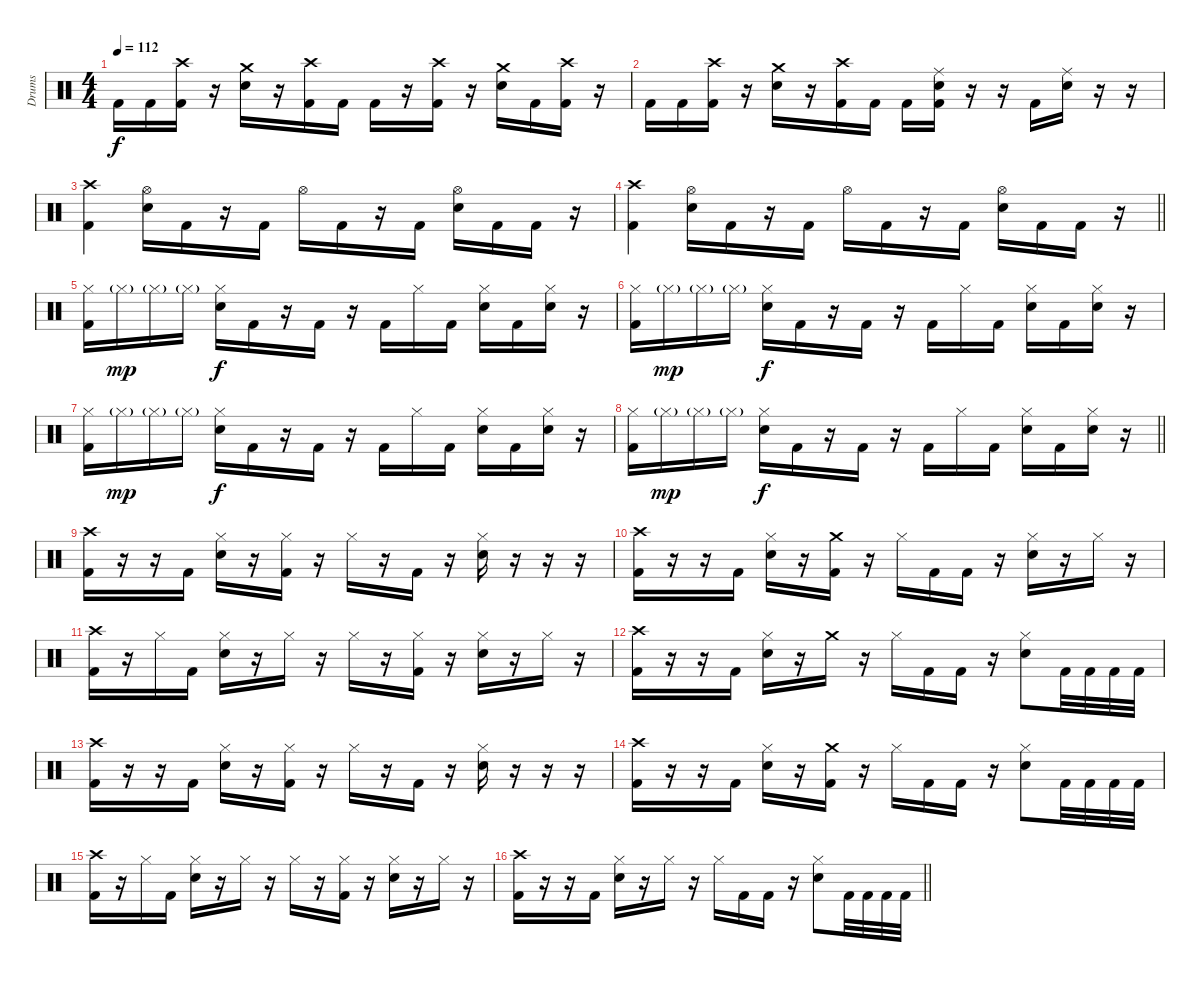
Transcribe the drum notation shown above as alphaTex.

\track ("Drums" "Drums") {instrument percussion}
\staff {score}
\articulation defaults
\ts (4 4)
\tempo 112
\clef neutral
\ks c "Kick (hit) 2".16{dy f} "Kick (hit) 2".16
("Crash high (hit)" "Kick (hit) 2").16 r.16 ("Crash medium (hit)" "Electric Snare (hit)").16 r.16 ("Crash high (hit)" "Kick (hit) 2").16 "Kick (hit) 2".16 "Kick (hit) 2".16 r.16 ("Crash high (hit)" "Kick (hit) 2").16 r.16 ("Crash medium (hit)" "Electric Snare (hit)").16 "Kick (hit) 2".16 ("Crash high (hit)" "Kick (hit) 2").16 r.16 |
"Kick (hit) 2".16 "Kick (hit) 2".16 ("Crash high (hit)" "Kick (hit) 2").16 r.16 ("Crash medium (hit)" "Electric Snare (hit)").16 r.16 ("Crash high (hit)" "Kick (hit) 2").16 "Kick (hit) 2".16 "Kick (hit) 2".16 ("Ride (middle)" "Electric Snare (hit)" "Kick (hit) 2").16 r.16 r.16 "Kick (hit) 2".16 ("Ride (middle)" "Electric Snare (hit)").16 r.16 r.16 |
("Crash high (hit)" "Kick (hit) 2").4 ("Hi-Hat (open)" "Electric Snare (hit)").16 "Kick (hit) 2".16 r.16 "Kick (hit) 2".16 "Hi-Hat (open)".16 "Kick (hit) 2".16 r.16 "Kick (hit) 2".16 ("Hi-Hat (open)" "Electric Snare (hit)").16 "Kick (hit) 2".16 "Kick (hit) 2".16 r.16 |
\barLineRight lightlight
("Crash high (hit)" "Kick (hit) 2").4 ("Hi-Hat (open)" "Electric Snare (hit)").16 "Kick (hit) 2".16 r.16 "Kick (hit) 2".16 "Hi-Hat (open)".16 "Kick (hit) 2".16 r.16 "Kick (hit) 2".16 ("Hi-Hat (open)" "Electric Snare (hit)").16 "Kick (hit) 2".16 "Kick (hit) 2".16 r.16 |
("Hi-Hat (closed)" "Kick (hit) 2").16 "Hi-Hat (closed)"{g}.16{dy mp} "Hi-Hat (closed)"{g}.16 "Hi-Hat (closed)"{g}.16 ("Hi-Hat (closed)" "Electric Snare (hit)").16{dy f} "Kick (hit) 2".16 r.16 "Kick (hit) 2".16 r.16 "Kick (hit) 2".16 "Hi-Hat (closed)".16 "Kick (hit) 2".16 ("Hi-Hat (closed)" "Electric Snare (hit)").16 "Kick (hit) 2".16 ("Hi-Hat (closed)" "Electric Snare (hit)").16 r.16 |
("Hi-Hat (closed)" "Kick (hit) 2").16 "Hi-Hat (closed)"{g}.16{dy mp} "Hi-Hat (closed)"{g}.16 "Hi-Hat (closed)"{g}.16 ("Hi-Hat (closed)" "Electric Snare (hit)").16{dy f} "Kick (hit) 2".16 r.16 "Kick (hit) 2".16 r.16 "Kick (hit) 2".16 "Hi-Hat (closed)".16 "Kick (hit) 2".16 ("Hi-Hat (closed)" "Electric Snare (hit)").16 "Kick (hit) 2".16 ("Hi-Hat (closed)" "Electric Snare (hit)").16 r.16 |
("Hi-Hat (closed)" "Kick (hit) 2").16 "Hi-Hat (closed)"{g}.16{dy mp} "Hi-Hat (closed)"{g}.16 "Hi-Hat (closed)"{g}.16 ("Hi-Hat (closed)" "Electric Snare (hit)").16{dy f} "Kick (hit) 2".16 r.16 "Kick (hit) 2".16 r.16 "Kick (hit) 2".16 "Hi-Hat (closed)".16 "Kick (hit) 2".16 ("Hi-Hat (closed)" "Electric Snare (hit)").16 "Kick (hit) 2".16 ("Hi-Hat (closed)" "Electric Snare (hit)").16 r.16 |
\barLineRight lightlight
("Hi-Hat (closed)" "Kick (hit) 2").16 "Hi-Hat (closed)"{g}.16{dy mp} "Hi-Hat (closed)"{g}.16 "Hi-Hat (closed)"{g}.16 ("Hi-Hat (closed)" "Electric Snare (hit)").16{dy f} "Kick (hit) 2".16 r.16 "Kick (hit) 2".16 r.16 "Kick (hit) 2".16 "Hi-Hat (closed)".16 "Kick (hit) 2".16 ("Hi-Hat (closed)" "Electric Snare (hit)").16 "Kick (hit) 2".16 ("Hi-Hat (closed)" "Electric Snare (hit)").16 r.16 |
("Crash high (hit)" "Kick (hit) 2").16 r.16 r.16 "Kick (hit) 2".16 ("Hi-Hat (closed)" "Electric Snare (hit)").16 r.16 ("Hi-Hat (closed)" "Kick (hit) 2").16 r.16 "Hi-Hat (closed)".16 r.16 "Kick (hit) 2".16 r.16 ("Hi-Hat (closed)" "Electric Snare (hit)").16 r.16 r.16 r.16 |
("Crash high (hit)" "Kick (hit) 2").16 r.16 r.16 "Kick (hit) 2".16 ("Hi-Hat (closed)" "Electric Snare (hit)").16 r.16 ("Crash medium (hit)" "Kick (hit) 2").16 r.16 "Hi-Hat (closed)".16 "Kick (hit) 2".16 "Kick (hit) 2".16 r.16 ("Hi-Hat (closed)" "Electric Snare (hit)").16 r.16 "Hi-Hat (closed)".16 r.16 |
("Crash high (hit)" "Kick (hit) 2").16 r.16 "Hi-Hat (closed)".16 "Kick (hit) 2".16 ("Hi-Hat (closed)" "Electric Snare (hit)").16 r.16 "Hi-Hat (closed)".16 r.16 "Hi-Hat (closed)".16 r.16 ("Hi-Hat (closed)" "Kick (hit) 2").16 r.16 ("Hi-Hat (closed)" "Electric Snare (hit)").16 r.16 "Hi-Hat (closed)".16 r.16 |
("Crash high (hit)" "Kick (hit) 2").16 r.16 r.16 "Kick (hit) 2".16 ("Hi-Hat (closed)" "Electric Snare (hit)").16 r.16 "Crash medium (hit)".16 r.16 "Hi-Hat (closed)".16 "Kick (hit) 2".16 "Kick (hit) 2".16 r.16 ("Hi-Hat (closed)" "Electric Snare (hit)").8 "Kick (hit) 2".32 "Kick (hit) 2".32 "Kick (hit) 2".32 "Kick (hit) 2".32 |
("Crash high (hit)" "Kick (hit) 2").16 r.16 r.16 "Kick (hit) 2".16 ("Hi-Hat (closed)" "Electric Snare (hit)").16 r.16 ("Hi-Hat (closed)" "Kick (hit) 2").16 r.16 "Hi-Hat (closed)".16 r.16 "Kick (hit) 2".16 r.16 ("Hi-Hat (closed)" "Electric Snare (hit)").16 r.16 r.16 r.16 |
("Crash high (hit)" "Kick (hit) 2").16 r.16 r.16 "Kick (hit) 2".16 ("Hi-Hat (closed)" "Electric Snare (hit)").16 r.16 ("Crash medium (hit)" "Kick (hit) 2").16 r.16 "Hi-Hat (closed)".16 "Kick (hit) 2".16 "Kick (hit) 2".16 r.16 ("Hi-Hat (closed)" "Electric Snare (hit)").8 "Kick (hit) 2".32 "Kick (hit) 2".32 "Kick (hit) 2".32 "Kick (hit) 2".32 |
("Crash high (hit)" "Kick (hit) 2").16 r.16 "Hi-Hat (closed)".16 "Kick (hit) 2".16 ("Hi-Hat (closed)" "Electric Snare (hit)").16 r.16 "Hi-Hat (closed)".16 r.16 "Hi-Hat (closed)".16 r.16 ("Hi-Hat (closed)" "Kick (hit) 2").16 r.16 ("Hi-Hat (closed)" "Electric Snare (hit)").16 r.16 "Hi-Hat (closed)".16 r.16 |
\barLineRight lightlight
("Crash high (hit)" "Kick (hit) 2").16 r.16 r.16 "Kick (hit) 2".16 ("Hi-Hat (closed)" "Electric Snare (hit)").16 r.16 "Hi-Hat (closed)".16 r.16 "Hi-Hat (closed)".16 "Kick (hit) 2".16 "Kick (hit) 2".16 r.16 ("Hi-Hat (closed)" "Electric Snare (hit)").8 "Kick (hit) 2".32 "Kick (hit) 2".32 "Kick (hit) 2".32 "Kick (hit) 2".32
